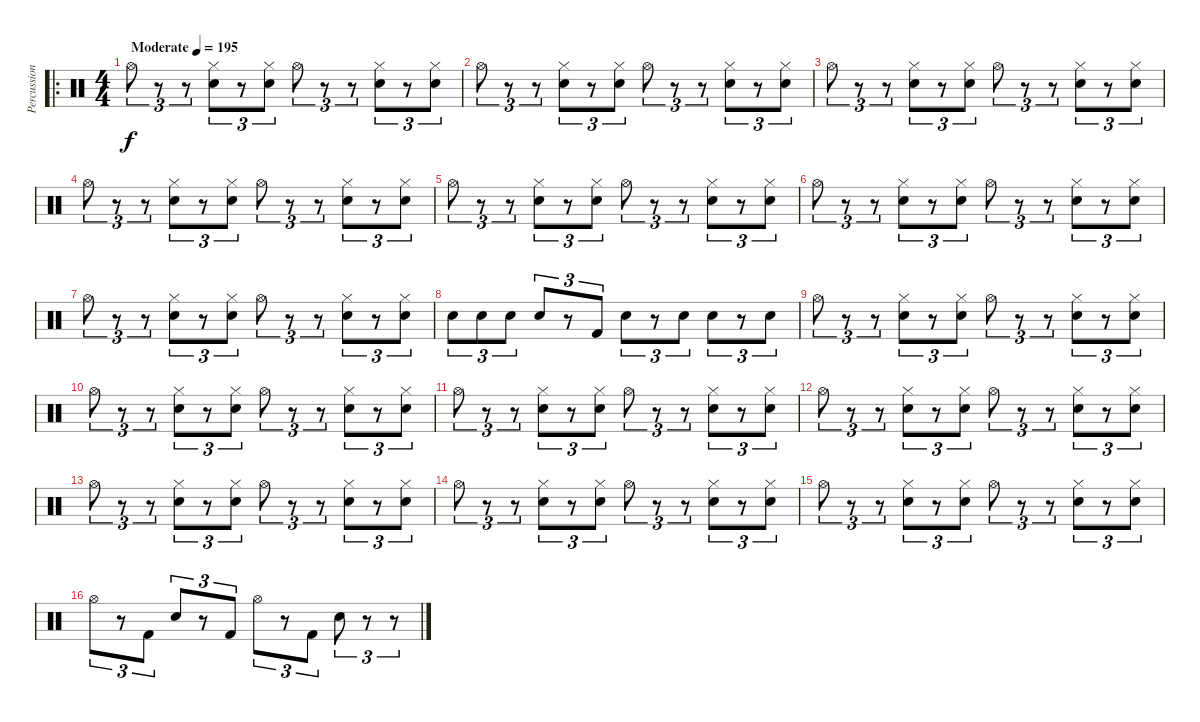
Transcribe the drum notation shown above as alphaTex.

\track ("Percussion" "Percussion") {instrument percussion}
\staff {score}
\articulation defaults
\ro
\ts (4 4)
\tempo (195 "Moderate")
\clef neutral
\ks c "Hi-Hat (open)".8{tu (3 2) dy f}
r.8{tu (3 2)} r.8{tu (3 2)} ("Hi-Hat (closed)" "Snare (hit) 2").8{tu (3 2)} r.8{tu (3 2)} ("Hi-Hat (closed)" "Snare (hit) 2").8{tu (3 2)} "Hi-Hat (open)".8{tu (3 2)} r.8{tu (3 2)} r.8{tu (3 2)} ("Hi-Hat (closed)" "Snare (hit) 2").8{tu (3 2)} r.8{tu (3 2)} ("Hi-Hat (closed)" "Snare (hit) 2").8{tu (3 2)} |
"Hi-Hat (open)".8{tu (3 2)} r.8{tu (3 2)} r.8{tu (3 2)} ("Hi-Hat (closed)" "Snare (hit) 2").8{tu (3 2)} r.8{tu (3 2)} ("Hi-Hat (closed)" "Snare (hit) 2").8{tu (3 2)} "Hi-Hat (open)".8{tu (3 2)} r.8{tu (3 2)} r.8{tu (3 2)} ("Hi-Hat (closed)" "Snare (hit) 2").8{tu (3 2)} r.8{tu (3 2)} ("Hi-Hat (closed)" "Snare (hit) 2").8{tu (3 2)} |
"Hi-Hat (open)".8{tu (3 2)} r.8{tu (3 2)} r.8{tu (3 2)} ("Hi-Hat (closed)" "Snare (hit) 2").8{tu (3 2)} r.8{tu (3 2)} ("Hi-Hat (closed)" "Snare (hit) 2").8{tu (3 2)} "Hi-Hat (open)".8{tu (3 2)} r.8{tu (3 2)} r.8{tu (3 2)} ("Hi-Hat (closed)" "Snare (hit) 2").8{tu (3 2)} r.8{tu (3 2)} ("Hi-Hat (closed)" "Snare (hit) 2").8{tu (3 2)} |
"Hi-Hat (open)".8{tu (3 2)} r.8{tu (3 2)} r.8{tu (3 2)} ("Hi-Hat (closed)" "Snare (hit) 2").8{tu (3 2)} r.8{tu (3 2)} ("Hi-Hat (closed)" "Snare (hit) 2").8{tu (3 2)} "Hi-Hat (open)".8{tu (3 2)} r.8{tu (3 2)} r.8{tu (3 2)} ("Hi-Hat (closed)" "Snare (hit) 2").8{tu (3 2)} r.8{tu (3 2)} ("Hi-Hat (closed)" "Snare (hit) 2").8{tu (3 2)} |
"Hi-Hat (open)".8{tu (3 2)} r.8{tu (3 2)} r.8{tu (3 2)} ("Hi-Hat (closed)" "Snare (hit) 2").8{tu (3 2)} r.8{tu (3 2)} ("Hi-Hat (closed)" "Snare (hit) 2").8{tu (3 2)} "Hi-Hat (open)".8{tu (3 2)} r.8{tu (3 2)} r.8{tu (3 2)} ("Hi-Hat (closed)" "Snare (hit) 2").8{tu (3 2)} r.8{tu (3 2)} ("Hi-Hat (closed)" "Snare (hit) 2").8{tu (3 2)} |
"Hi-Hat (open)".8{tu (3 2)} r.8{tu (3 2)} r.8{tu (3 2)} ("Hi-Hat (closed)" "Snare (hit) 2").8{tu (3 2)} r.8{tu (3 2)} ("Hi-Hat (closed)" "Snare (hit) 2").8{tu (3 2)} "Hi-Hat (open)".8{tu (3 2)} r.8{tu (3 2)} r.8{tu (3 2)} ("Hi-Hat (closed)" "Snare (hit) 2").8{tu (3 2)} r.8{tu (3 2)} ("Hi-Hat (closed)" "Snare (hit) 2").8{tu (3 2)} |
"Hi-Hat (open)".8{tu (3 2)} r.8{tu (3 2)} r.8{tu (3 2)} ("Hi-Hat (closed)" "Snare (hit) 2").8{tu (3 2)} r.8{tu (3 2)} ("Hi-Hat (closed)" "Snare (hit) 2").8{tu (3 2)} "Hi-Hat (open)".8{tu (3 2)} r.8{tu (3 2)} r.8{tu (3 2)} ("Hi-Hat (closed)" "Snare (hit) 2").8{tu (3 2)} r.8{tu (3 2)} ("Hi-Hat (closed)" "Snare (hit) 2").8{tu (3 2)} |
"Snare (hit) 2".8{tu (3 2)} "Snare (hit) 2".8{tu (3 2)} "Snare (hit) 2".8{tu (3 2)} "Snare (hit) 2".8{tu (3 2)} r.8{tu (3 2)} "Kick (hit) 2".8{tu (3 2)} "Snare (hit) 2".8{tu (3 2)} r.8{tu (3 2)} "Snare (hit) 2".8{tu (3 2)} "Snare (hit) 2".8{tu (3 2)} r.8{tu (3 2)} "Snare (hit) 2".8{tu (3 2)} |
"Hi-Hat (open)".8{tu (3 2)} r.8{tu (3 2)} r.8{tu (3 2)} ("Hi-Hat (closed)" "Snare (hit) 2").8{tu (3 2)} r.8{tu (3 2)} ("Hi-Hat (closed)" "Snare (hit) 2").8{tu (3 2)} "Hi-Hat (open)".8{tu (3 2)} r.8{tu (3 2)} r.8{tu (3 2)} ("Hi-Hat (closed)" "Snare (hit) 2").8{tu (3 2)} r.8{tu (3 2)} ("Hi-Hat (closed)" "Snare (hit) 2").8{tu (3 2)} |
"Hi-Hat (open)".8{tu (3 2)} r.8{tu (3 2)} r.8{tu (3 2)} ("Hi-Hat (closed)" "Snare (hit) 2").8{tu (3 2)} r.8{tu (3 2)} ("Hi-Hat (closed)" "Snare (hit) 2").8{tu (3 2)} "Hi-Hat (open)".8{tu (3 2)} r.8{tu (3 2)} r.8{tu (3 2)} ("Hi-Hat (closed)" "Snare (hit) 2").8{tu (3 2)} r.8{tu (3 2)} ("Hi-Hat (closed)" "Snare (hit) 2").8{tu (3 2)} |
"Hi-Hat (open)".8{tu (3 2)} r.8{tu (3 2)} r.8{tu (3 2)} ("Hi-Hat (closed)" "Snare (hit) 2").8{tu (3 2)} r.8{tu (3 2)} ("Hi-Hat (closed)" "Snare (hit) 2").8{tu (3 2)} "Hi-Hat (open)".8{tu (3 2)} r.8{tu (3 2)} r.8{tu (3 2)} ("Hi-Hat (closed)" "Snare (hit) 2").8{tu (3 2)} r.8{tu (3 2)} ("Hi-Hat (closed)" "Snare (hit) 2").8{tu (3 2)} |
"Hi-Hat (open)".8{tu (3 2)} r.8{tu (3 2)} r.8{tu (3 2)} ("Hi-Hat (closed)" "Snare (hit) 2").8{tu (3 2)} r.8{tu (3 2)} ("Hi-Hat (closed)" "Snare (hit) 2").8{tu (3 2)} "Hi-Hat (open)".8{tu (3 2)} r.8{tu (3 2)} r.8{tu (3 2)} ("Hi-Hat (closed)" "Snare (hit) 2").8{tu (3 2)} r.8{tu (3 2)} ("Hi-Hat (closed)" "Snare (hit) 2").8{tu (3 2)} |
"Hi-Hat (open)".8{tu (3 2)} r.8{tu (3 2)} r.8{tu (3 2)} ("Hi-Hat (closed)" "Snare (hit) 2").8{tu (3 2)} r.8{tu (3 2)} ("Hi-Hat (closed)" "Snare (hit) 2").8{tu (3 2)} "Hi-Hat (open)".8{tu (3 2)} r.8{tu (3 2)} r.8{tu (3 2)} ("Hi-Hat (closed)" "Snare (hit) 2").8{tu (3 2)} r.8{tu (3 2)} ("Hi-Hat (closed)" "Snare (hit) 2").8{tu (3 2)} |
"Hi-Hat (open)".8{tu (3 2)} r.8{tu (3 2)} r.8{tu (3 2)} ("Hi-Hat (closed)" "Snare (hit) 2").8{tu (3 2)} r.8{tu (3 2)} ("Hi-Hat (closed)" "Snare (hit) 2").8{tu (3 2)} "Hi-Hat (open)".8{tu (3 2)} r.8{tu (3 2)} r.8{tu (3 2)} ("Hi-Hat (closed)" "Snare (hit) 2").8{tu (3 2)} r.8{tu (3 2)} ("Hi-Hat (closed)" "Snare (hit) 2").8{tu (3 2)} |
"Hi-Hat (open)".8{tu (3 2)} r.8{tu (3 2)} r.8{tu (3 2)} ("Hi-Hat (closed)" "Snare (hit) 2").8{tu (3 2)} r.8{tu (3 2)} ("Hi-Hat (closed)" "Snare (hit) 2").8{tu (3 2)} "Hi-Hat (open)".8{tu (3 2)} r.8{tu (3 2)} r.8{tu (3 2)} ("Hi-Hat (closed)" "Snare (hit) 2").8{tu (3 2)} r.8{tu (3 2)} ("Hi-Hat (closed)" "Snare (hit) 2").8{tu (3 2)} |
"Hi-Hat (open)".8{tu (3 2)} r.8{tu (3 2)} "Kick (hit) 2".8{tu (3 2)} "Snare (hit) 2".8{tu (3 2)} r.8{tu (3 2)} "Kick (hit) 2".8{tu (3 2)} "Hi-Hat (open)".8{tu (3 2)} r.8{tu (3 2)} "Kick (hit) 2".8{tu (3 2)} "Snare (hit) 2".8{tu (3 2)} r.8{tu (3 2)} r.8{tu (3 2)}
